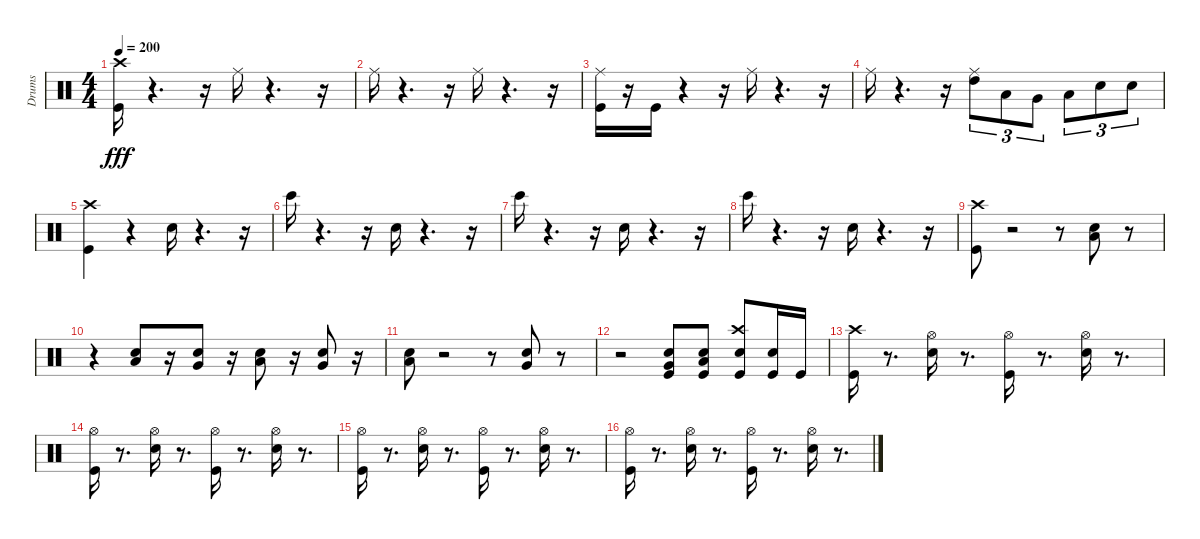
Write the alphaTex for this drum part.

\track ("Drums" "Drums") {instrument percussion}
\staff {score}
\articulation defaults
\ts (4 4)
\tempo 200
\clef neutral
\ks c
("Kick (hit)" "Crash high (hit)").16{dy fff} r.4{d} r.16 "Ride (middle)".16 r.4{d} r.16 |
"Ride (middle)".16 r.4{d} r.16 "Ride (middle)".16 r.4{d} r.16 |
("Ride (middle)" "Kick (hit)").16 r.16 "Kick (hit)".16 r.4 r.16 "Ride (middle)".16 r.4{d} r.16 |
"Ride (middle)".16 r.4{d} r.16 ("Ride (middle)" "High Tom (hit)").8{tu (3 2)} "Low Tom (hit)".8{tu (3 2)} "Very Low Tom (hit)".8{tu (3 2)} "Low Floor Tom (hit)".8{tu (3 2)} "Electric Snare (hit)".8{tu (3 2)} "Snare (hit) 2".8{tu (3 2)} |
("Kick (hit)" "Crash high (hit)").4 r.4 "Snare (hit) 2".16 r.4{d} r.16 |
"Bongo High (hit)".16 r.4{d} r.16 "Snare (hit) 2".16 r.4{d} r.16 |
"Bongo High (hit)".16 r.4{d} r.16 "Snare (hit) 2".16 r.4{d} r.16 |
"Bongo High (hit)".16 r.4{d} r.16 "Snare (hit) 2".16 r.4{d} r.16 |
("Kick (hit)" "Crash high (hit)").8 r.2 r.8 ("Snare (hit) 2" "Low Tom (hit)").8 r.8 |
r.4 ("Snare (hit) 2" "Low Tom (hit)").8 r.16 ("Very Low Tom (hit)" "Snare (hit) 2").8 r.16 ("Low Floor Tom (hit)" "Snare (hit) 2").8 r.16 ("Very Low Tom (hit)" "Snare (hit) 2").8 r.16 |
("Snare (hit) 2" "Low Tom (hit)").8 r.2 r.8 ("Snare (hit) 2" "Very Low Tom (hit)").8 r.8 |
r.2 ("Snare (hit) 2" "Very Low Tom (hit)" "Kick (hit)").8 ("Low Floor Tom (hit)" "Snare (hit) 2" "Kick (hit)").8 ("Crash high (hit)" "Snare (hit) 2" "Kick (hit)").8 ("Kick (hit)" "Snare (hit) 2").16 "Kick (hit)".16 |
("Kick (hit)" "Crash high (hit)").16 r.8{d} ("Hi-Hat (open)" "Snare (hit) 2").16 r.8{d} ("Hi-Hat (open)" "Kick (hit)").16 r.8{d} ("Hi-Hat (open)" "Snare (hit) 2").16 r.8{d} |
("Hi-Hat (open)" "Kick (hit)").16 r.8{d} ("Hi-Hat (open)" "Snare (hit) 2").16 r.8{d} ("Hi-Hat (open)" "Kick (hit)").16 r.8{d} ("Hi-Hat (open)" "Snare (hit) 2").16 r.8{d} |
("Hi-Hat (open)" "Kick (hit)").16 r.8{d} ("Hi-Hat (open)" "Snare (hit) 2").16 r.8{d} ("Hi-Hat (open)" "Kick (hit)").16 r.8{d} ("Hi-Hat (open)" "Snare (hit) 2").16 r.8{d} |
("Hi-Hat (open)" "Kick (hit)").16 r.8{d} ("Hi-Hat (open)" "Snare (hit) 2").16 r.8{d} ("Hi-Hat (open)" "Kick (hit)").16 r.8{d} ("Hi-Hat (open)" "Snare (hit) 2").16 r.8{d}
